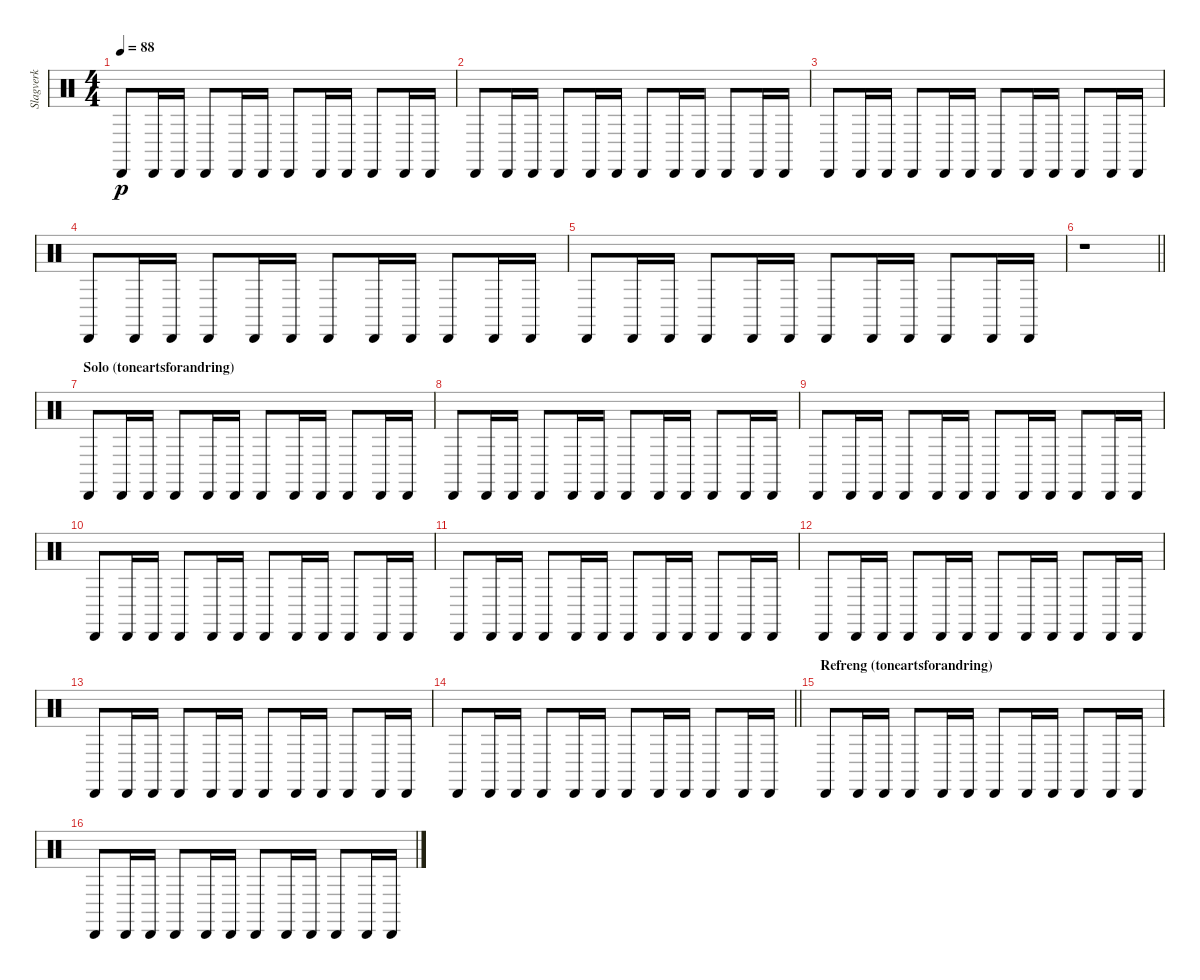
\track ("Slagverk" "Slagverk") {instrument percussion}
\staff {score}
\articulation defaults
\ts (4 4)
\tempo 88
\clef neutral
\ks c "Cabasa (hit)".8{dy p} "Cabasa (hit)".16 "Cabasa (hit)".16 "Cabasa (hit)".8 "Cabasa (hit)".16 "Cabasa (hit)".16 "Cabasa (hit)".8 "Cabasa (hit)".16 "Cabasa (hit)".16 "Cabasa (hit)".8 "Cabasa (hit)".16 "Cabasa (hit)".16
|
"Cabasa (hit)".8 "Cabasa (hit)".16 "Cabasa (hit)".16 "Cabasa (hit)".8 "Cabasa (hit)".16 "Cabasa (hit)".16 "Cabasa (hit)".8 "Cabasa (hit)".16 "Cabasa (hit)".16 "Cabasa (hit)".8 "Cabasa (hit)".16 "Cabasa (hit)".16 |
"Cabasa (hit)".8 "Cabasa (hit)".16 "Cabasa (hit)".16 "Cabasa (hit)".8 "Cabasa (hit)".16 "Cabasa (hit)".16 "Cabasa (hit)".8 "Cabasa (hit)".16 "Cabasa (hit)".16 "Cabasa (hit)".8 "Cabasa (hit)".16 "Cabasa (hit)".16 |
"Cabasa (hit)".8 "Cabasa (hit)".16 "Cabasa (hit)".16 "Cabasa (hit)".8 "Cabasa (hit)".16 "Cabasa (hit)".16 "Cabasa (hit)".8 "Cabasa (hit)".16 "Cabasa (hit)".16 "Cabasa (hit)".8 "Cabasa (hit)".16 "Cabasa (hit)".16 |
"Cabasa (hit)".8 "Cabasa (hit)".16 "Cabasa (hit)".16 "Cabasa (hit)".8 "Cabasa (hit)".16 "Cabasa (hit)".16 "Cabasa (hit)".8 "Cabasa (hit)".16 "Cabasa (hit)".16 "Cabasa (hit)".8 "Cabasa (hit)".16 "Cabasa (hit)".16 |
\barLineRight lightlight
r.1 |
\section ("" "Solo (toneartsforandring)")
"Cabasa (hit)".8 "Cabasa (hit)".16 "Cabasa (hit)".16 "Cabasa (hit)".8 "Cabasa (hit)".16 "Cabasa (hit)".16 "Cabasa (hit)".8 "Cabasa (hit)".16 "Cabasa (hit)".16 "Cabasa (hit)".8 "Cabasa (hit)".16 "Cabasa (hit)".16 |
"Cabasa (hit)".8 "Cabasa (hit)".16 "Cabasa (hit)".16 "Cabasa (hit)".8 "Cabasa (hit)".16 "Cabasa (hit)".16 "Cabasa (hit)".8 "Cabasa (hit)".16 "Cabasa (hit)".16 "Cabasa (hit)".8 "Cabasa (hit)".16 "Cabasa (hit)".16 |
"Cabasa (hit)".8 "Cabasa (hit)".16 "Cabasa (hit)".16 "Cabasa (hit)".8 "Cabasa (hit)".16 "Cabasa (hit)".16 "Cabasa (hit)".8 "Cabasa (hit)".16 "Cabasa (hit)".16 "Cabasa (hit)".8 "Cabasa (hit)".16 "Cabasa (hit)".16 |
"Cabasa (hit)".8 "Cabasa (hit)".16 "Cabasa (hit)".16 "Cabasa (hit)".8 "Cabasa (hit)".16 "Cabasa (hit)".16 "Cabasa (hit)".8 "Cabasa (hit)".16 "Cabasa (hit)".16 "Cabasa (hit)".8 "Cabasa (hit)".16 "Cabasa (hit)".16 |
"Cabasa (hit)".8 "Cabasa (hit)".16 "Cabasa (hit)".16 "Cabasa (hit)".8 "Cabasa (hit)".16 "Cabasa (hit)".16 "Cabasa (hit)".8 "Cabasa (hit)".16 "Cabasa (hit)".16 "Cabasa (hit)".8 "Cabasa (hit)".16 "Cabasa (hit)".16 |
"Cabasa (hit)".8 "Cabasa (hit)".16 "Cabasa (hit)".16 "Cabasa (hit)".8 "Cabasa (hit)".16 "Cabasa (hit)".16 "Cabasa (hit)".8 "Cabasa (hit)".16 "Cabasa (hit)".16 "Cabasa (hit)".8 "Cabasa (hit)".16 "Cabasa (hit)".16 |
"Cabasa (hit)".8 "Cabasa (hit)".16 "Cabasa (hit)".16 "Cabasa (hit)".8 "Cabasa (hit)".16 "Cabasa (hit)".16 "Cabasa (hit)".8 "Cabasa (hit)".16 "Cabasa (hit)".16 "Cabasa (hit)".8 "Cabasa (hit)".16 "Cabasa (hit)".16 |
\barLineRight lightlight "Cabasa (hit)".8 "Cabasa (hit)".16 "Cabasa (hit)".16 "Cabasa (hit)".8 "Cabasa (hit)".16 "Cabasa (hit)".16 "Cabasa (hit)".8 "Cabasa (hit)".16 "Cabasa (hit)".16 "Cabasa (hit)".8 "Cabasa (hit)".16 "Cabasa (hit)".16
|
\section ("" "Refreng (toneartsforandring)")
"Cabasa (hit)".8 "Cabasa (hit)".16 "Cabasa (hit)".16 "Cabasa (hit)".8 "Cabasa (hit)".16 "Cabasa (hit)".16 "Cabasa (hit)".8 "Cabasa (hit)".16 "Cabasa (hit)".16 "Cabasa (hit)".8 "Cabasa (hit)".16 "Cabasa (hit)".16 |
"Cabasa (hit)".8 "Cabasa (hit)".16 "Cabasa (hit)".16 "Cabasa (hit)".8 "Cabasa (hit)".16 "Cabasa (hit)".16 "Cabasa (hit)".8 "Cabasa (hit)".16 "Cabasa (hit)".16 "Cabasa (hit)".8 "Cabasa (hit)".16 "Cabasa (hit)".16
